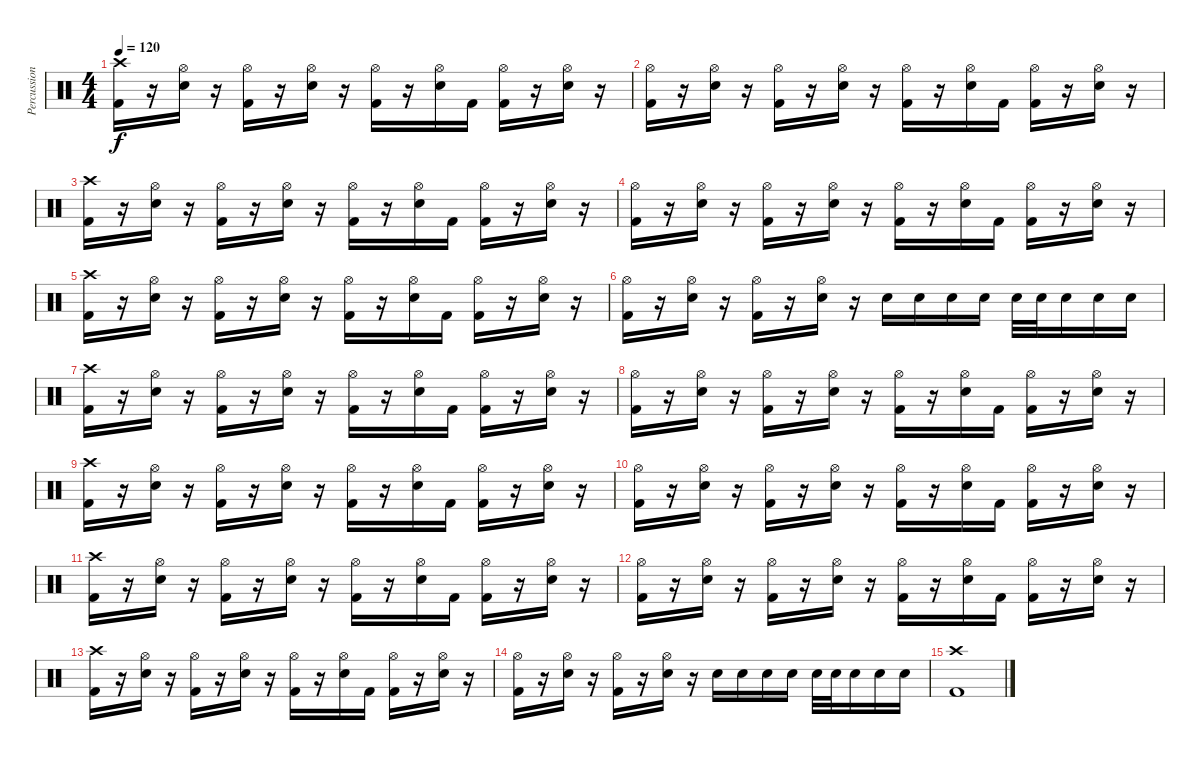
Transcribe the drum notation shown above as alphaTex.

\track ("Percussion" "Percussion") {instrument percussion}
\staff {score}
\articulation defaults
\ts (4 4)
\tempo 120
\clef neutral
\ks c
("Crash high (hit)" "Kick (hit) 2").16{dy f} r.16 ("Hi-Hat (open)" "Electric Snare (hit)").16 r.16 ("Hi-Hat (open)" "Kick (hit) 2").16 r.16 ("Hi-Hat (open)" "Electric Snare (hit)").16 r.16 ("Hi-Hat (open)" "Kick (hit) 2").16 r.16 ("Hi-Hat (open)" "Electric Snare (hit)").16 "Kick (hit) 2".16 ("Hi-Hat (open)" "Kick (hit) 2").16 r.16 ("Hi-Hat (open)" "Electric Snare (hit)").16 r.16 |
("Hi-Hat (open)" "Kick (hit) 2").16 r.16 ("Hi-Hat (open)" "Electric Snare (hit)").16 r.16 ("Hi-Hat (open)" "Kick (hit) 2").16 r.16 ("Hi-Hat (open)" "Electric Snare (hit)").16 r.16 ("Hi-Hat (open)" "Kick (hit) 2").16 r.16 ("Hi-Hat (open)" "Electric Snare (hit)").16 "Kick (hit) 2".16 ("Hi-Hat (open)" "Kick (hit) 2").16 r.16 ("Hi-Hat (open)" "Electric Snare (hit)").16 r.16 |
("Crash high (hit)" "Kick (hit) 2").16 r.16 ("Hi-Hat (open)" "Electric Snare (hit)").16 r.16 ("Hi-Hat (open)" "Kick (hit) 2").16 r.16 ("Hi-Hat (open)" "Electric Snare (hit)").16 r.16 ("Hi-Hat (open)" "Kick (hit) 2").16 r.16 ("Hi-Hat (open)" "Electric Snare (hit)").16 "Kick (hit) 2".16 ("Hi-Hat (open)" "Kick (hit) 2").16 r.16 ("Hi-Hat (open)" "Electric Snare (hit)").16 r.16 |
("Hi-Hat (open)" "Kick (hit) 2").16 r.16 ("Hi-Hat (open)" "Electric Snare (hit)").16 r.16 ("Hi-Hat (open)" "Kick (hit) 2").16 r.16 ("Hi-Hat (open)" "Electric Snare (hit)").16 r.16 ("Hi-Hat (open)" "Kick (hit) 2").16 r.16 ("Hi-Hat (open)" "Electric Snare (hit)").16 "Kick (hit) 2".16 ("Hi-Hat (open)" "Kick (hit) 2").16 r.16 ("Hi-Hat (open)" "Electric Snare (hit)").16 r.16 |
("Crash high (hit)" "Kick (hit) 2").16 r.16 ("Hi-Hat (open)" "Electric Snare (hit)").16 r.16 ("Hi-Hat (open)" "Kick (hit) 2").16 r.16 ("Hi-Hat (open)" "Electric Snare (hit)").16 r.16 ("Hi-Hat (open)" "Kick (hit) 2").16 r.16 ("Hi-Hat (open)" "Electric Snare (hit)").16 "Kick (hit) 2".16 ("Hi-Hat (open)" "Kick (hit) 2").16 r.16 ("Hi-Hat (open)" "Electric Snare (hit)").16 r.16 |
("Hi-Hat (open)" "Kick (hit) 2").16 r.16 ("Hi-Hat (open)" "Electric Snare (hit)").16 r.16 ("Hi-Hat (open)" "Kick (hit) 2").16 r.16 ("Hi-Hat (open)" "Electric Snare (hit)").16 r.16 "Electric Snare (hit)".16 "Electric Snare (hit)".16 "Electric Snare (hit)".16 "Electric Snare (hit)".16 "Electric Snare (hit)".32 "Electric Snare (hit)".32 "Electric Snare (hit)".16 "Electric Snare (hit)".16 "Electric Snare (hit)".16 |
("Crash high (hit)" "Kick (hit) 2").16 r.16 ("Hi-Hat (open)" "Electric Snare (hit)").16 r.16 ("Hi-Hat (open)" "Kick (hit) 2").16 r.16 ("Hi-Hat (open)" "Electric Snare (hit)").16 r.16 ("Hi-Hat (open)" "Kick (hit) 2").16 r.16 ("Hi-Hat (open)" "Electric Snare (hit)").16 "Kick (hit) 2".16 ("Hi-Hat (open)" "Kick (hit) 2").16 r.16 ("Hi-Hat (open)" "Electric Snare (hit)").16 r.16 |
("Hi-Hat (open)" "Kick (hit) 2").16 r.16 ("Hi-Hat (open)" "Electric Snare (hit)").16 r.16 ("Hi-Hat (open)" "Kick (hit) 2").16 r.16 ("Hi-Hat (open)" "Electric Snare (hit)").16 r.16 ("Hi-Hat (open)" "Kick (hit) 2").16 r.16 ("Hi-Hat (open)" "Electric Snare (hit)").16 "Kick (hit) 2".16 ("Hi-Hat (open)" "Kick (hit) 2").16 r.16 ("Hi-Hat (open)" "Electric Snare (hit)").16 r.16 |
("Crash high (hit)" "Kick (hit) 2").16 r.16 ("Hi-Hat (open)" "Electric Snare (hit)").16 r.16 ("Hi-Hat (open)" "Kick (hit) 2").16 r.16 ("Hi-Hat (open)" "Electric Snare (hit)").16 r.16 ("Hi-Hat (open)" "Kick (hit) 2").16 r.16 ("Hi-Hat (open)" "Electric Snare (hit)").16 "Kick (hit) 2".16 ("Hi-Hat (open)" "Kick (hit) 2").16 r.16 ("Hi-Hat (open)" "Electric Snare (hit)").16 r.16 |
("Hi-Hat (open)" "Kick (hit) 2").16 r.16 ("Hi-Hat (open)" "Electric Snare (hit)").16 r.16 ("Hi-Hat (open)" "Kick (hit) 2").16 r.16 ("Hi-Hat (open)" "Electric Snare (hit)").16 r.16 ("Hi-Hat (open)" "Kick (hit) 2").16 r.16 ("Hi-Hat (open)" "Electric Snare (hit)").16 "Kick (hit) 2".16 ("Hi-Hat (open)" "Kick (hit) 2").16 r.16 ("Hi-Hat (open)" "Electric Snare (hit)").16 r.16 |
("Crash high (hit)" "Kick (hit) 2").16 r.16 ("Hi-Hat (open)" "Electric Snare (hit)").16 r.16 ("Hi-Hat (open)" "Kick (hit) 2").16 r.16 ("Hi-Hat (open)" "Electric Snare (hit)").16 r.16 ("Hi-Hat (open)" "Kick (hit) 2").16 r.16 ("Hi-Hat (open)" "Electric Snare (hit)").16 "Kick (hit) 2".16 ("Hi-Hat (open)" "Kick (hit) 2").16 r.16 ("Hi-Hat (open)" "Electric Snare (hit)").16 r.16 |
("Hi-Hat (open)" "Kick (hit) 2").16 r.16 ("Hi-Hat (open)" "Electric Snare (hit)").16 r.16 ("Hi-Hat (open)" "Kick (hit) 2").16 r.16 ("Hi-Hat (open)" "Electric Snare (hit)").16 r.16 ("Hi-Hat (open)" "Kick (hit) 2").16 r.16 ("Hi-Hat (open)" "Electric Snare (hit)").16 "Kick (hit) 2".16 ("Hi-Hat (open)" "Kick (hit) 2").16 r.16 ("Hi-Hat (open)" "Electric Snare (hit)").16 r.16 |
("Crash high (hit)" "Kick (hit) 2").16 r.16 ("Hi-Hat (open)" "Electric Snare (hit)").16 r.16 ("Hi-Hat (open)" "Kick (hit) 2").16 r.16 ("Hi-Hat (open)" "Electric Snare (hit)").16 r.16 ("Hi-Hat (open)" "Kick (hit) 2").16 r.16 ("Hi-Hat (open)" "Electric Snare (hit)").16 "Kick (hit) 2".16 ("Hi-Hat (open)" "Kick (hit) 2").16 r.16 ("Hi-Hat (open)" "Electric Snare (hit)").16 r.16 |
("Hi-Hat (open)" "Kick (hit) 2").16 r.16 ("Hi-Hat (open)" "Electric Snare (hit)").16 r.16 ("Hi-Hat (open)" "Kick (hit) 2").16 r.16 ("Hi-Hat (open)" "Electric Snare (hit)").16 r.16 "Electric Snare (hit)".16 "Electric Snare (hit)".16 "Electric Snare (hit)".16 "Electric Snare (hit)".16 "Electric Snare (hit)".32 "Electric Snare (hit)".32 "Electric Snare (hit)".16 "Electric Snare (hit)".16 "Electric Snare (hit)".16 |
("Crash high (hit)" "Kick (hit) 2").1
